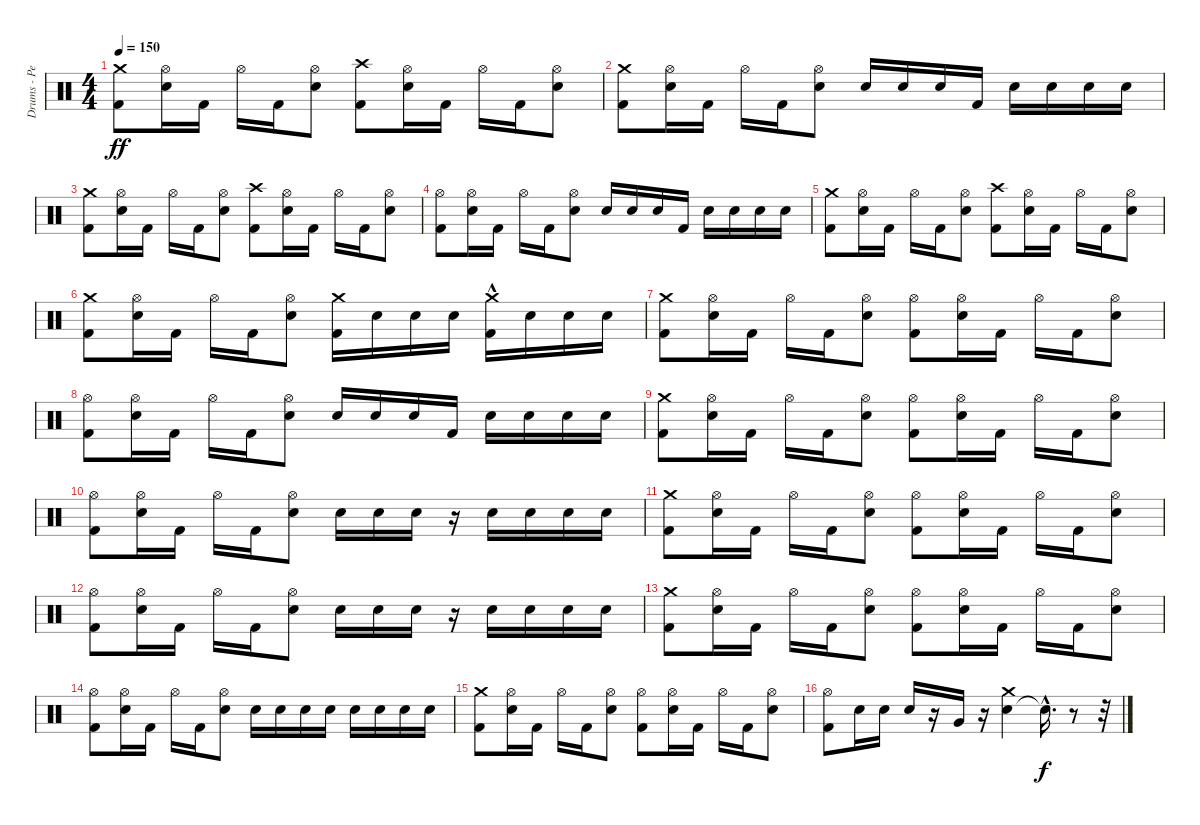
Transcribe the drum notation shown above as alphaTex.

\track ("Drums - Pete Finestone" "Drums - Pe") {instrument percussion}
\staff {score}
\articulation defaults
\ts (4 4)
\tempo 150
\clef neutral
\ks c
("Kick (hit) 2" "Crash medium (hit)").8{dy ff} ("Electric Snare (hit)" "Hi-Hat (open)").16 "Kick (hit) 2".16 "Hi-Hat (open)".16 "Kick (hit) 2".16 ("Electric Snare (hit)" "Hi-Hat (open)").8 ("Kick (hit) 2" "Crash high (hit)").8 ("Electric Snare (hit)" "Hi-Hat (open)").16 "Kick (hit) 2".16 "Hi-Hat (open)".16 "Kick (hit) 2".16 ("Electric Snare (hit)" "Hi-Hat (open)").8 |
("Kick (hit) 2" "Crash medium (hit)").8 ("Electric Snare (hit)" "Hi-Hat (open)").16 "Kick (hit) 2".16 "Hi-Hat (open)".16 "Kick (hit) 2".16 ("Electric Snare (hit)" "Hi-Hat (open)").8 "Electric Snare (hit)".16 "Electric Snare (hit)".16 "Electric Snare (hit)".16 "Kick (hit) 2".16 "Electric Snare (hit)".16 "Electric Snare (hit)".16 "Electric Snare (hit)".16 "Electric Snare (hit)".16 |
("Kick (hit) 2" "Crash medium (hit)").8 ("Electric Snare (hit)" "Hi-Hat (open)").16 "Kick (hit) 2".16 "Hi-Hat (open)".16 "Kick (hit) 2".16 ("Electric Snare (hit)" "Hi-Hat (open)").8 ("Kick (hit) 2" "Crash high (hit)").8 ("Electric Snare (hit)" "Hi-Hat (open)").16 "Kick (hit) 2".16 "Hi-Hat (open)".16 "Kick (hit) 2".16 ("Electric Snare (hit)" "Hi-Hat (open)").8 |
("Kick (hit) 2" "Hi-Hat (open)").8 ("Electric Snare (hit)" "Hi-Hat (open)").16 "Kick (hit) 2".16 "Hi-Hat (open)".16 "Kick (hit) 2".16 ("Electric Snare (hit)" "Hi-Hat (open)").8 "Electric Snare (hit)".16 "Electric Snare (hit)".16 "Electric Snare (hit)".16 "Kick (hit) 2".16 "Electric Snare (hit)".16 "Electric Snare (hit)".16 "Electric Snare (hit)".16 "Electric Snare (hit)".16 |
("Crash medium (hit)" "Kick (hit) 2").8 ("Hi-Hat (open)" "Electric Snare (hit)").16 "Kick (hit) 2".16 "Hi-Hat (open)".16 "Kick (hit) 2".16 ("Hi-Hat (open)" "Electric Snare (hit)").8 ("Crash high (hit)" "Kick (hit) 2").8 ("Hi-Hat (open)" "Electric Snare (hit)").16 "Kick (hit) 2".16 "Hi-Hat (open)".16 "Kick (hit) 2".16 ("Hi-Hat (open)" "Electric Snare (hit)").8 |
("Crash medium (hit)" "Kick (hit) 2").8 ("Hi-Hat (open)" "Electric Snare (hit)").16 "Kick (hit) 2".16 "Hi-Hat (open)".16 "Kick (hit) 2".16 ("Hi-Hat (open)" "Electric Snare (hit)").8 ("Crash medium (hit)" "Kick (hit) 2").16 "Electric Snare (hit)".16 "Electric Snare (hit)".16 "Electric Snare (hit)".16 ("Crash medium (hit)"{hac} "Kick (hit) 2").16 "Electric Snare (hit)".16 "Electric Snare (hit)".16 "Electric Snare (hit)".16 |
("Kick (hit) 2" "Crash medium (hit)").8 ("Electric Snare (hit)" "Hi-Hat (open)").16 "Kick (hit) 2".16 "Hi-Hat (open)".16 "Kick (hit) 2".16 ("Electric Snare (hit)" "Hi-Hat (open)").8 ("Kick (hit) 2" "Hi-Hat (open)").8 ("Electric Snare (hit)" "Hi-Hat (open)").16 "Kick (hit) 2".16 "Hi-Hat (open)".16 "Kick (hit) 2".16 ("Electric Snare (hit)" "Hi-Hat (open)").8 |
("Kick (hit) 2" "Hi-Hat (open)").8 ("Electric Snare (hit)" "Hi-Hat (open)").16 "Kick (hit) 2".16 "Hi-Hat (open)".16 "Kick (hit) 2".16 ("Electric Snare (hit)" "Hi-Hat (open)").8 "Electric Snare (hit)".16 "Electric Snare (hit)".16 "Electric Snare (hit)".16 "Kick (hit) 2".16 "Electric Snare (hit)".16 "Electric Snare (hit)".16 "Electric Snare (hit)".16 "Electric Snare (hit)".16 |
("Kick (hit) 2" "Crash medium (hit)").8 ("Electric Snare (hit)" "Hi-Hat (open)").16 "Kick (hit) 2".16 "Hi-Hat (open)".16 "Kick (hit) 2".16 ("Electric Snare (hit)" "Hi-Hat (open)").8 ("Kick (hit) 2" "Hi-Hat (open)").8 ("Electric Snare (hit)" "Hi-Hat (open)").16 "Kick (hit) 2".16 "Hi-Hat (open)".16 "Kick (hit) 2".16 ("Electric Snare (hit)" "Hi-Hat (open)").8 |
("Kick (hit) 2" "Hi-Hat (open)").8 ("Electric Snare (hit)" "Hi-Hat (open)").16 "Kick (hit) 2".16 "Hi-Hat (open)".16 "Kick (hit) 2".16 ("Electric Snare (hit)" "Hi-Hat (open)").8 "Electric Snare (hit)".16 "Electric Snare (hit)".16 "Electric Snare (hit)".16 r.16 "Electric Snare (hit)".16 "Electric Snare (hit)".16 "Electric Snare (hit)".16 "Electric Snare (hit)".16 |
("Kick (hit) 2" "Crash medium (hit)").8 ("Electric Snare (hit)" "Hi-Hat (open)").16 "Kick (hit) 2".16 "Hi-Hat (open)".16 "Kick (hit) 2".16 ("Electric Snare (hit)" "Hi-Hat (open)").8 ("Kick (hit) 2" "Hi-Hat (open)").8 ("Electric Snare (hit)" "Hi-Hat (open)").16 "Kick (hit) 2".16 "Hi-Hat (open)".16 "Kick (hit) 2".16 ("Electric Snare (hit)" "Hi-Hat (open)").8 |
("Kick (hit) 2" "Hi-Hat (open)").8 ("Electric Snare (hit)" "Hi-Hat (open)").16 "Kick (hit) 2".16 "Hi-Hat (open)".16 "Kick (hit) 2".16 ("Electric Snare (hit)" "Hi-Hat (open)").8 "Electric Snare (hit)".16 "Electric Snare (hit)".16 "Electric Snare (hit)".16 r.16 "Electric Snare (hit)".16 "Electric Snare (hit)".16 "Electric Snare (hit)".16 "Electric Snare (hit)".16 |
("Kick (hit) 2" "Crash medium (hit)").8 ("Electric Snare (hit)" "Hi-Hat (open)").16 "Kick (hit) 2".16 "Hi-Hat (open)".16 "Kick (hit) 2".16 ("Electric Snare (hit)" "Hi-Hat (open)").8 ("Kick (hit) 2" "Hi-Hat (open)").8 ("Electric Snare (hit)" "Hi-Hat (open)").16 "Kick (hit) 2".16 "Hi-Hat (open)".16 "Kick (hit) 2".16 ("Electric Snare (hit)" "Hi-Hat (open)").8 |
("Kick (hit) 2" "Hi-Hat (open)").8 ("Electric Snare (hit)" "Hi-Hat (open)").16 "Kick (hit) 2".16 "Hi-Hat (open)".16 "Kick (hit) 2".16 ("Electric Snare (hit)" "Hi-Hat (open)").8 "Electric Snare (hit)".16 "Electric Snare (hit)".16 "Electric Snare (hit)".16 "Electric Snare (hit)".16 "Electric Snare (hit)".16 "Electric Snare (hit)".16 "Electric Snare (hit)".16 "Electric Snare (hit)".16 |
("Kick (hit) 2" "Crash medium (hit)").8 ("Electric Snare (hit)" "Hi-Hat (open)").16 "Kick (hit) 2".16 "Hi-Hat (open)".16 "Kick (hit) 2".16 ("Electric Snare (hit)" "Hi-Hat (open)").8 ("Kick (hit) 2" "Hi-Hat (open)").8 ("Electric Snare (hit)" "Hi-Hat (open)").16 "Kick (hit) 2".16 "Hi-Hat (open)".16 "Kick (hit) 2".16 ("Electric Snare (hit)" "Hi-Hat (open)").8 |
("Kick (hit) 2" "Hi-Hat (open)").8 "Electric Snare (hit)".16 "Electric Snare (hit)".16 "Electric Snare (hit)".16 r.16 "Very Low Tom (hit)".16 r.16 ("Electric Snare (hit)" "Crash medium (hit)").4 "Snare (hit)"{hac t}.16{d dy f} r.8 r.32
